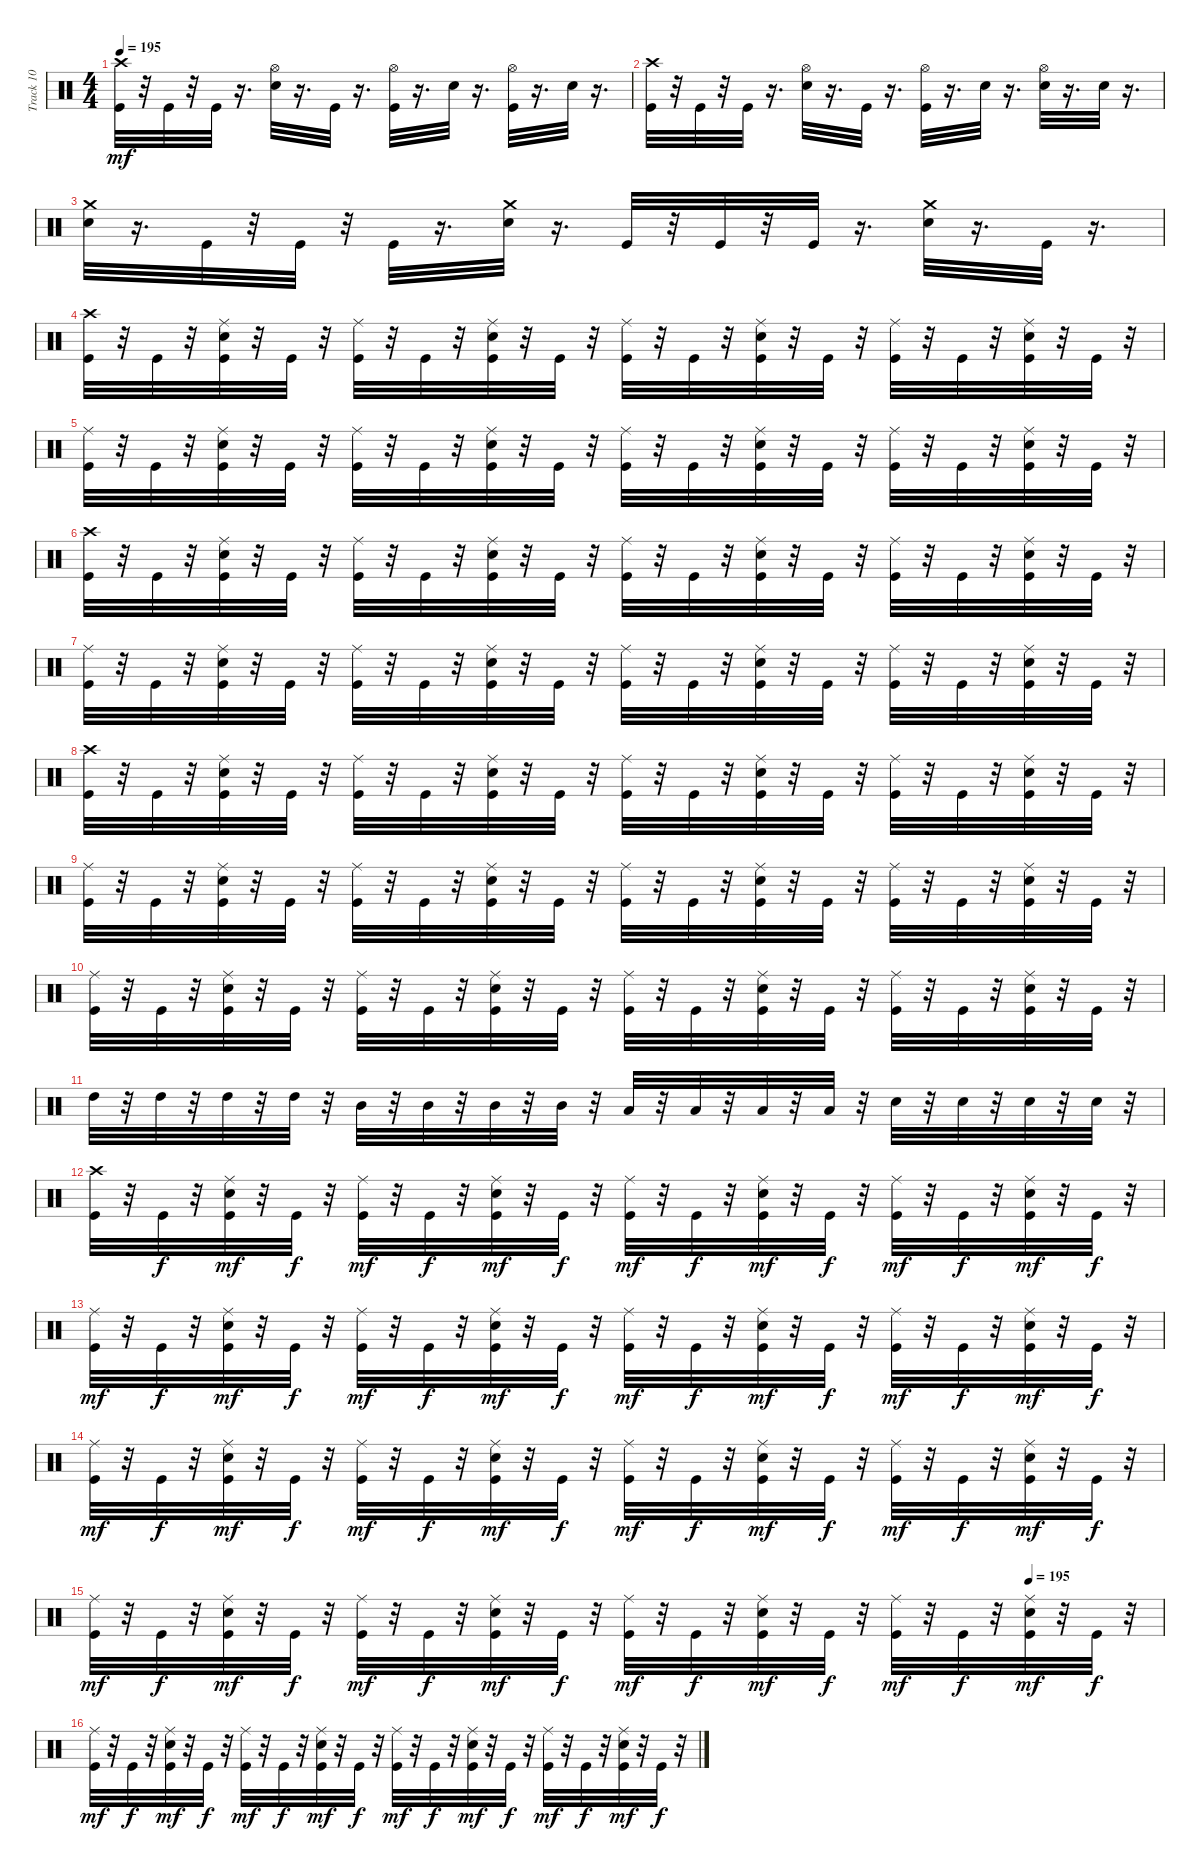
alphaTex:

\track ("Track 10" "Track 10") {instrument percussion}
\staff {score}
\articulation defaults
\ts (4 4)
\tempo 195
\clef neutral
\ks c
("Crash high (hit)" "Kick (hit)").32{dy mf} r.32 "Kick (hit)".32 r.32 "Kick (hit)".32 r.16{d} ("Electric Snare (hit)" "Hi-Hat (open)").32 r.16{d} "Kick (hit)".32 r.16{d} ("Kick (hit)" "Hi-Hat (open)").32 r.16{d} "Electric Snare (hit)".32 r.16{d} ("Kick (hit)" "Hi-Hat (open)").32 r.16{d} "Electric Snare (hit)".32 r.16{d} |
("Crash high (hit)" "Kick (hit)").32 r.32 "Kick (hit)".32 r.32 "Kick (hit)".32 r.16{d} ("Electric Snare (hit)" "Hi-Hat (open)").32 r.16{d} "Kick (hit)".32 r.16{d} ("Kick (hit)" "Hi-Hat (open)").32 r.16{d} "Electric Snare (hit)".32 r.16{d} ("Electric Snare (hit)" "Hi-Hat (open)").32 r.16{d} "Electric Snare (hit)".32 r.16{d} |
("Crash medium (hit)" "Electric Snare (hit)").32 r.16{d} "Kick (hit)".32 r.32 "Kick (hit)".32 r.32 "Kick (hit)".32 r.16{d} ("Crash medium (hit)" "Electric Snare (hit)").32 r.16{d} "Kick (hit)".32 r.32 "Kick (hit)".32 r.32 "Kick (hit)".32 r.16{d} ("Crash medium (hit)" "Electric Snare (hit)").32 r.16{d} "Kick (hit)".32 r.16{d} |
("Crash high (hit)" "Kick (hit)").32 r.32 "Kick (hit)".32 r.32 ("Electric Snare (hit)" "Kick (hit)" "Ride (middle)").32 r.32 "Kick (hit)".32 r.32 ("Ride (middle)" "Kick (hit)").32 r.32 "Kick (hit)".32 r.32 ("Ride (middle)" "Electric Snare (hit)" "Kick (hit)").32 r.32 "Kick (hit)".32 r.32 ("Ride (middle)" "Kick (hit)").32 r.32 "Kick (hit)".32 r.32 ("Ride (middle)" "Kick (hit)" "Electric Snare (hit)").32 r.32 "Kick (hit)".32 r.32 ("Ride (middle)" "Kick (hit)").32 r.32 "Kick (hit)".32 r.32 ("Ride (middle)" "Electric Snare (hit)" "Kick (hit)").32 r.32 "Kick (hit)".32 r.32 |
("Ride (middle)" "Kick (hit)").32 r.32 "Kick (hit)".32 r.32 ("Electric Snare (hit)" "Kick (hit)" "Ride (middle)").32 r.32 "Kick (hit)".32 r.32 ("Ride (middle)" "Kick (hit)").32 r.32 "Kick (hit)".32 r.32 ("Ride (middle)" "Electric Snare (hit)" "Kick (hit)").32 r.32 "Kick (hit)".32 r.32 ("Ride (middle)" "Kick (hit)").32 r.32 "Kick (hit)".32 r.32 ("Ride (middle)" "Kick (hit)" "Electric Snare (hit)").32 r.32 "Kick (hit)".32 r.32 ("Ride (middle)" "Kick (hit)").32 r.32 "Kick (hit)".32 r.32 ("Ride (middle)" "Electric Snare (hit)" "Kick (hit)").32 r.32 "Kick (hit)".32 r.32 |
("Crash high (hit)" "Kick (hit)").32 r.32 "Kick (hit)".32 r.32 ("Electric Snare (hit)" "Kick (hit)" "Ride (middle)").32 r.32 "Kick (hit)".32 r.32 ("Ride (middle)" "Kick (hit)").32 r.32 "Kick (hit)".32 r.32 ("Ride (middle)" "Electric Snare (hit)" "Kick (hit)").32 r.32 "Kick (hit)".32 r.32 ("Ride (middle)" "Kick (hit)").32 r.32 "Kick (hit)".32 r.32 ("Ride (middle)" "Kick (hit)" "Electric Snare (hit)").32 r.32 "Kick (hit)".32 r.32 ("Ride (middle)" "Kick (hit)").32 r.32 "Kick (hit)".32 r.32 ("Ride (middle)" "Electric Snare (hit)" "Kick (hit)").32 r.32 "Kick (hit)".32 r.32 |
("Ride (middle)" "Kick (hit)").32 r.32 "Kick (hit)".32 r.32 ("Electric Snare (hit)" "Kick (hit)" "Ride (middle)").32 r.32 "Kick (hit)".32 r.32 ("Ride (middle)" "Kick (hit)").32 r.32 "Kick (hit)".32 r.32 ("Ride (middle)" "Electric Snare (hit)" "Kick (hit)").32 r.32 "Kick (hit)".32 r.32 ("Ride (middle)" "Kick (hit)").32 r.32 "Kick (hit)".32 r.32 ("Ride (middle)" "Kick (hit)" "Electric Snare (hit)").32 r.32 "Kick (hit)".32 r.32 ("Ride (middle)" "Kick (hit)").32 r.32 "Kick (hit)".32 r.32 ("Ride (middle)" "Electric Snare (hit)" "Kick (hit)").32 r.32 "Kick (hit)".32 r.32 |
("Crash high (hit)" "Kick (hit)").32 r.32 "Kick (hit)".32 r.32 ("Electric Snare (hit)" "Kick (hit)" "Ride (middle)").32 r.32 "Kick (hit)".32 r.32 ("Ride (middle)" "Kick (hit)").32 r.32 "Kick (hit)".32 r.32 ("Ride (middle)" "Electric Snare (hit)" "Kick (hit)").32 r.32 "Kick (hit)".32 r.32 ("Ride (middle)" "Kick (hit)").32 r.32 "Kick (hit)".32 r.32 ("Ride (middle)" "Kick (hit)" "Electric Snare (hit)").32 r.32 "Kick (hit)".32 r.32 ("Ride (middle)" "Kick (hit)").32 r.32 "Kick (hit)".32 r.32 ("Ride (middle)" "Electric Snare (hit)" "Kick (hit)").32 r.32 "Kick (hit)".32 r.32 |
("Ride (middle)" "Kick (hit)").32 r.32 "Kick (hit)".32 r.32 ("Electric Snare (hit)" "Kick (hit)" "Ride (middle)").32 r.32 "Kick (hit)".32 r.32 ("Ride (middle)" "Kick (hit)").32 r.32 "Kick (hit)".32 r.32 ("Ride (middle)" "Electric Snare (hit)" "Kick (hit)").32 r.32 "Kick (hit)".32 r.32 ("Ride (middle)" "Kick (hit)").32 r.32 "Kick (hit)".32 r.32 ("Ride (middle)" "Kick (hit)" "Electric Snare (hit)").32 r.32 "Kick (hit)".32 r.32 ("Ride (middle)" "Kick (hit)").32 r.32 "Kick (hit)".32 r.32 ("Ride (middle)" "Electric Snare (hit)" "Kick (hit)").32 r.32 "Kick (hit)".32 r.32 |
("Ride (middle)" "Kick (hit)").32 r.32 "Kick (hit)".32 r.32 ("Electric Snare (hit)" "Kick (hit)" "Ride (middle)").32 r.32 "Kick (hit)".32 r.32 ("Ride (middle)" "Kick (hit)").32 r.32 "Kick (hit)".32 r.32 ("Ride (middle)" "Electric Snare (hit)" "Kick (hit)").32 r.32 "Kick (hit)".32 r.32 ("Ride (middle)" "Kick (hit)").32 r.32 "Kick (hit)".32 r.32 ("Ride (middle)" "Kick (hit)" "Electric Snare (hit)").32 r.32 "Kick (hit)".32 r.32 ("Ride (middle)" "Kick (hit)").32 r.32 "Kick (hit)".32 r.32 ("Ride (middle)" "Electric Snare (hit)" "Kick (hit)").32 r.32 "Kick (hit)".32 r.32 |
"High Tom (hit)".32 r.32 "High Tom (hit)".32 r.32 "High Tom (hit)".32 r.32 "High Tom (hit)".32 r.32 "Mid Tom (hit)".32 r.32 "Mid Tom (hit)".32 r.32 "Mid Tom (hit)".32 r.32 "Mid Tom (hit)".32 r.32 "Low Tom (hit)".32 r.32 "Low Tom (hit)".32 r.32 "Low Tom (hit)".32 r.32 "Low Tom (hit)".32 r.32 "Electric Snare (hit)".32 r.32 "Electric Snare (hit)".32 r.32 "Electric Snare (hit)".32 r.32 "Electric Snare (hit)".32 r.32 |
("Crash high (hit)" "Kick (hit)").32 r.32 "Kick (hit)".32{dy f} r.32 ("Electric Snare (hit)" "Ride (middle)" "Kick (hit)").32{dy mf} r.32 "Kick (hit)".32{dy f} r.32 ("Ride (middle)" "Kick (hit)").32{dy mf} r.32 "Kick (hit)".32{dy f} r.32 ("Ride (middle)" "Kick (hit)" "Electric Snare (hit)").32{dy mf} r.32 "Kick (hit)".32{dy f} r.32 ("Ride (middle)" "Kick (hit)").32{dy mf} r.32 "Kick (hit)".32{dy f} r.32 ("Ride (middle)" "Kick (hit)" "Electric Snare (hit)").32{dy mf} r.32 "Kick (hit)".32{dy f} r.32 ("Ride (middle)" "Kick (hit)").32{dy mf} r.32 "Kick (hit)".32{dy f} r.32 ("Electric Snare (hit)" "Ride (middle)" "Kick (hit)").32{dy mf} r.32 "Kick (hit)".32{dy f} r.32 |
("Ride (middle)" "Kick (hit)").32{dy mf} r.32 "Kick (hit)".32{dy f} r.32 ("Electric Snare (hit)" "Ride (middle)" "Kick (hit)").32{dy mf} r.32 "Kick (hit)".32{dy f} r.32 ("Ride (middle)" "Kick (hit)").32{dy mf} r.32 "Kick (hit)".32{dy f} r.32 ("Ride (middle)" "Kick (hit)" "Electric Snare (hit)").32{dy mf} r.32 "Kick (hit)".32{dy f} r.32 ("Ride (middle)" "Kick (hit)").32{dy mf} r.32 "Kick (hit)".32{dy f} r.32 ("Ride (middle)" "Kick (hit)" "Electric Snare (hit)").32{dy mf} r.32 "Kick (hit)".32{dy f} r.32 ("Ride (middle)" "Kick (hit)").32{dy mf} r.32 "Kick (hit)".32{dy f} r.32 ("Electric Snare (hit)" "Ride (middle)" "Kick (hit)").32{dy mf} r.32 "Kick (hit)".32{dy f} r.32 |
("Ride (middle)" "Kick (hit)").32{dy mf} r.32 "Kick (hit)".32{dy f} r.32 ("Electric Snare (hit)" "Ride (middle)" "Kick (hit)").32{dy mf} r.32 "Kick (hit)".32{dy f} r.32 ("Ride (middle)" "Kick (hit)").32{dy mf} r.32 "Kick (hit)".32{dy f} r.32 ("Ride (middle)" "Kick (hit)" "Electric Snare (hit)").32{dy mf} r.32 "Kick (hit)".32{dy f} r.32 ("Ride (middle)" "Kick (hit)").32{dy mf} r.32 "Kick (hit)".32{dy f} r.32 ("Ride (middle)" "Kick (hit)" "Electric Snare (hit)").32{dy mf} r.32 "Kick (hit)".32{dy f} r.32 ("Ride (middle)" "Kick (hit)").32{dy mf} r.32 "Kick (hit)".32{dy f} r.32 ("Electric Snare (hit)" "Ride (middle)" "Kick (hit)").32{dy mf} r.32 "Kick (hit)".32{dy f} r.32 |
\tempo (195 0.875)
("Ride (middle)" "Kick (hit)").32{dy mf} r.32 "Kick (hit)".32{dy f} r.32 ("Electric Snare (hit)" "Ride (middle)" "Kick (hit)").32{dy mf} r.32 "Kick (hit)".32{dy f} r.32 ("Ride (middle)" "Kick (hit)").32{dy mf} r.32 "Kick (hit)".32{dy f} r.32 ("Ride (middle)" "Kick (hit)" "Electric Snare (hit)").32{dy mf} r.32 "Kick (hit)".32{dy f} r.32 ("Ride (middle)" "Kick (hit)").32{dy mf} r.32 "Kick (hit)".32{dy f} r.32 ("Ride (middle)" "Kick (hit)" "Electric Snare (hit)").32{dy mf} r.32 "Kick (hit)".32{dy f} r.32 ("Ride (middle)" "Kick (hit)").32{dy mf} r.32 "Kick (hit)".32{dy f} r.32 ("Electric Snare (hit)" "Ride (middle)" "Kick (hit)").32{dy mf} r.32 "Kick (hit)".32{dy f} r.32 |
("Ride (middle)" "Kick (hit)").32{dy mf} r.32 "Kick (hit)".32{dy f} r.32 ("Electric Snare (hit)" "Ride (middle)" "Kick (hit)").32{dy mf} r.32 "Kick (hit)".32{dy f} r.32 ("Ride (middle)" "Kick (hit)").32{dy mf} r.32 "Kick (hit)".32{dy f} r.32 ("Ride (middle)" "Kick (hit)" "Electric Snare (hit)").32{dy mf} r.32 "Kick (hit)".32{dy f} r.32 ("Ride (middle)" "Kick (hit)").32{dy mf} r.32 "Kick (hit)".32{dy f} r.32 ("Ride (middle)" "Kick (hit)" "Electric Snare (hit)").32{dy mf} r.32 "Kick (hit)".32{dy f} r.32 ("Ride (middle)" "Kick (hit)").32{dy mf} r.32 "Kick (hit)".32{dy f} r.32 ("Electric Snare (hit)" "Ride (middle)" "Kick (hit)").32{dy mf} r.32 "Kick (hit)".32{dy f} r.32
